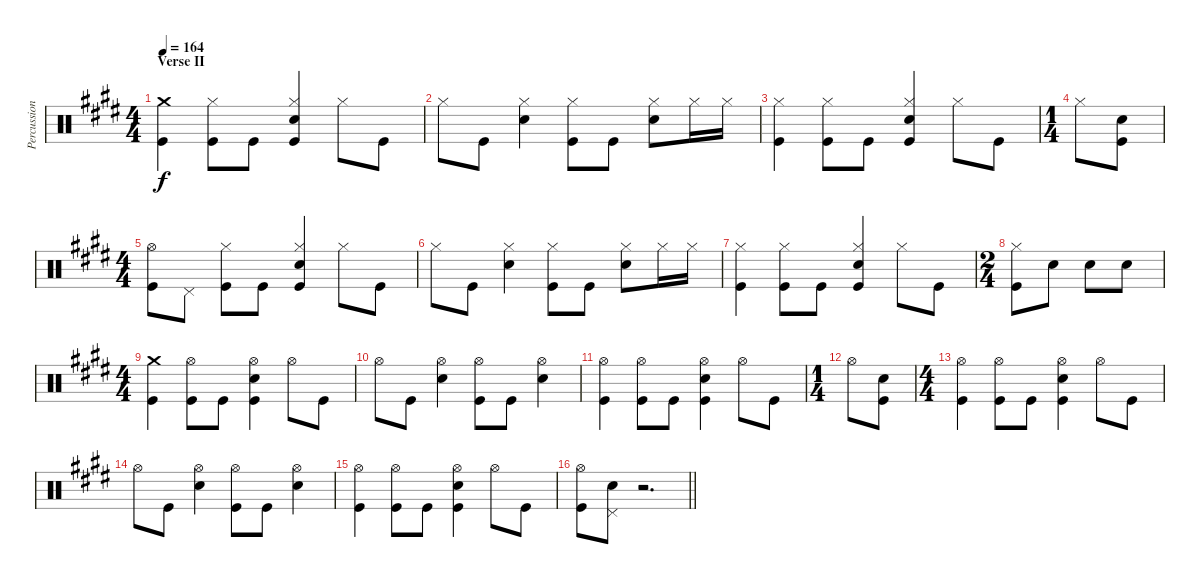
\track ("Percussion" "Percussion") {instrument percussion}
\staff {score}
\articulation defaults
\ts (4 4)
\section ("" "Verse II")
\tempo 164
\clef neutral
\ks e
("Crash medium (hit)" "Kick (hit)").4{dy f} ("Hi-Hat (closed)" "Kick (hit)").8 "Kick (hit)".8 ("Hi-Hat (closed)" "Electric Snare (hit)" "Kick (hit)").4 "Hi-Hat (closed)".8 "Kick (hit)".8 |
"Hi-Hat (closed)".8 "Kick (hit)".8 ("Hi-Hat (closed)" "Electric Snare (hit)").4 ("Hi-Hat (closed)" "Kick (hit)").8 "Kick (hit)".8 ("Hi-Hat (closed)" "Electric Snare (hit)").8 "Hi-Hat (closed)".16 "Hi-Hat (closed)".16 |
("Hi-Hat (closed)" "Kick (hit)").4 ("Hi-Hat (closed)" "Kick (hit)").8 "Kick (hit)".8 ("Hi-Hat (closed)" "Electric Snare (hit)" "Kick (hit)").4 "Hi-Hat (closed)".8 "Kick (hit)".8 |
\ts (1 4)
"Hi-Hat (closed)".8 ("Electric Snare (hit)" "Kick (hit)").8 |
\ts (4 4)
("Hi-Hat (open)" "Kick (hit)").8 "Pedal Hi-Hat (hit)".8 ("Hi-Hat (closed)" "Kick (hit)").8 "Kick (hit)".8 ("Hi-Hat (closed)" "Electric Snare (hit)" "Kick (hit)").4 "Hi-Hat (closed)".8 "Kick (hit)".8 |
"Hi-Hat (closed)".8 "Kick (hit)".8 ("Hi-Hat (closed)" "Electric Snare (hit)").4 ("Hi-Hat (closed)" "Kick (hit)").8 "Kick (hit)".8 ("Hi-Hat (closed)" "Electric Snare (hit)").8 "Hi-Hat (closed)".16 "Hi-Hat (closed)".16 |
("Hi-Hat (closed)" "Kick (hit)").4 ("Hi-Hat (closed)" "Kick (hit)").8 "Kick (hit)".8 ("Hi-Hat (closed)" "Electric Snare (hit)" "Kick (hit)").4 "Hi-Hat (closed)".8 "Kick (hit)".8 |
\ts (2 4)
("Hi-Hat (closed)" "Kick (hit)").8 "Electric Snare (hit)".8 "Electric Snare (hit)".8 "Electric Snare (hit)".8 |
\ts (4 4)
("Crash medium (hit)" "Kick (hit)").4 ("Hi-Hat (open)" "Kick (hit)").8 "Kick (hit)".8 ("Hi-Hat (open)" "Electric Snare (hit)" "Kick (hit)").4 "Hi-Hat (open)".8 "Kick (hit)".8 |
"Hi-Hat (open)".8 "Kick (hit)".8 ("Hi-Hat (open)" "Electric Snare (hit)").4 ("Hi-Hat (open)" "Kick (hit)").8 "Kick (hit)".8 ("Hi-Hat (open)" "Electric Snare (hit)").4 |
("Hi-Hat (open)" "Kick (hit)").4 ("Hi-Hat (open)" "Kick (hit)").8 "Kick (hit)".8 ("Hi-Hat (open)" "Electric Snare (hit)" "Kick (hit)").4 "Hi-Hat (open)".8 "Kick (hit)".8 |
\ts (1 4)
"Hi-Hat (open)".8 ("Electric Snare (hit)" "Kick (hit)").8 |
\ts (4 4)
("Hi-Hat (open)" "Kick (hit)").4 ("Hi-Hat (open)" "Kick (hit)").8 "Kick (hit)".8 ("Hi-Hat (open)" "Electric Snare (hit)" "Kick (hit)").4 "Hi-Hat (open)".8 "Kick (hit)".8 |
"Hi-Hat (open)".8 "Kick (hit)".8 ("Hi-Hat (open)" "Electric Snare (hit)").4 ("Hi-Hat (open)" "Kick (hit)").8 "Kick (hit)".8 ("Hi-Hat (open)" "Electric Snare (hit)").4 |
("Hi-Hat (open)" "Kick (hit)").4 ("Hi-Hat (open)" "Kick (hit)").8 "Kick (hit)".8 ("Hi-Hat (open)" "Electric Snare (hit)" "Kick (hit)").4 "Hi-Hat (open)".8 "Kick (hit)".8 |
\barLineRight lightlight
("Hi-Hat (open)" "Kick (hit)").8 ("Pedal Hi-Hat (hit)" "Electric Snare (hit)").8 r.2{d}
